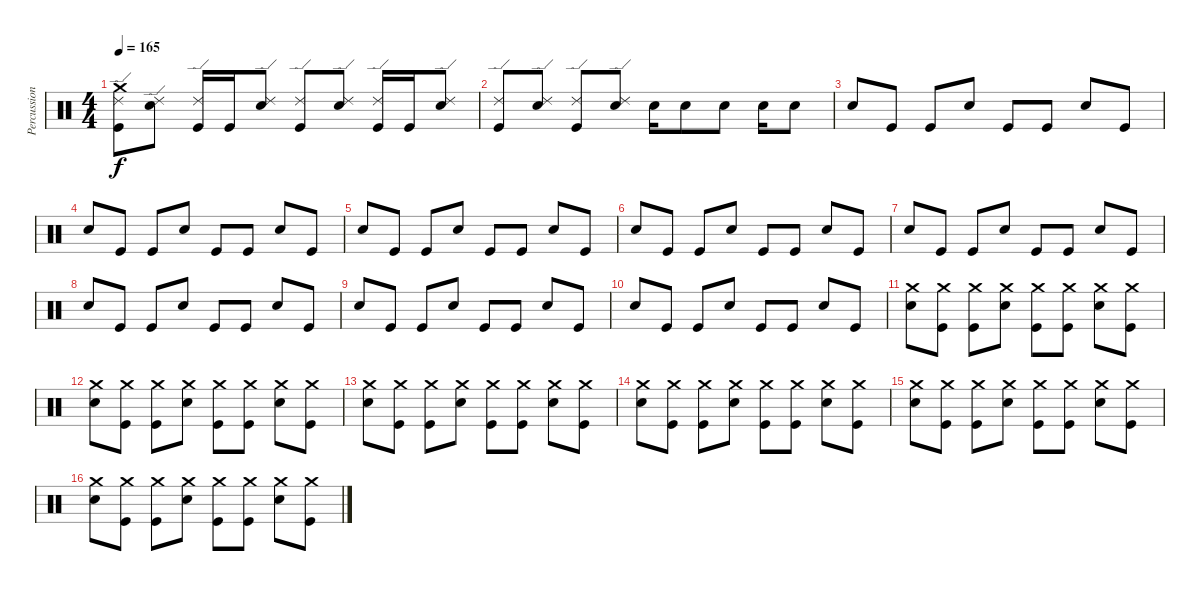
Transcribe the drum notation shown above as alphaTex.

\track ("Percussion" "Percussion") {instrument percussion}
\staff {score}
\articulation defaults
\ts (4 4)
\tempo 165
\clef neutral
\ks c
("Crash medium (hit)" "Ride (edge) 2" "Kick (hit)").8{dy f} ("Ride (edge) 2" "Electric Snare (hit)").8 ("Ride (edge) 2" "Kick (hit)").16 "Kick (hit)".16 ("Ride (edge) 2" "Electric Snare (hit)").8 ("Ride (edge) 2" "Kick (hit)").8 ("Ride (edge) 2" "Electric Snare (hit)").8 ("Ride (edge) 2" "Kick (hit)").16 "Kick (hit)".16 ("Ride (edge) 2" "Electric Snare (hit)").8 |
("Ride (edge) 2" "Kick (hit)").8 ("Ride (edge) 2" "Electric Snare (hit)").8 ("Ride (edge) 2" "Kick (hit)").8 ("Ride (edge) 2" "Electric Snare (hit)").8 "Electric Snare (hit)".16 "Electric Snare (hit)".8 "Electric Snare (hit)".8 "Electric Snare (hit)".16 "Electric Snare (hit)".8 |
"Electric Snare (hit)".8 "Kick (hit)".8 "Kick (hit)".8 "Electric Snare (hit)".8 "Kick (hit)".8 "Kick (hit)".8 "Electric Snare (hit)".8 "Kick (hit)".8 |
"Electric Snare (hit)".8 "Kick (hit)".8 "Kick (hit)".8 "Electric Snare (hit)".8 "Kick (hit)".8 "Kick (hit)".8 "Electric Snare (hit)".8 "Kick (hit)".8 |
"Electric Snare (hit)".8 "Kick (hit)".8 "Kick (hit)".8 "Electric Snare (hit)".8 "Kick (hit)".8 "Kick (hit)".8 "Electric Snare (hit)".8 "Kick (hit)".8 |
"Electric Snare (hit)".8 "Kick (hit)".8 "Kick (hit)".8 "Electric Snare (hit)".8 "Kick (hit)".8 "Kick (hit)".8 "Electric Snare (hit)".8 "Kick (hit)".8 |
"Electric Snare (hit)".8 "Kick (hit)".8 "Kick (hit)".8 "Electric Snare (hit)".8 "Kick (hit)".8 "Kick (hit)".8 "Electric Snare (hit)".8 "Kick (hit)".8 |
"Electric Snare (hit)".8 "Kick (hit)".8 "Kick (hit)".8 "Electric Snare (hit)".8 "Kick (hit)".8 "Kick (hit)".8 "Electric Snare (hit)".8 "Kick (hit)".8 |
"Electric Snare (hit)".8 "Kick (hit)".8 "Kick (hit)".8 "Electric Snare (hit)".8 "Kick (hit)".8 "Kick (hit)".8 "Electric Snare (hit)".8 "Kick (hit)".8 |
"Electric Snare (hit)".8 "Kick (hit)".8 "Kick (hit)".8 "Electric Snare (hit)".8 "Kick (hit)".8 "Kick (hit)".8 "Electric Snare (hit)".8 "Kick (hit)".8 |
("Crash medium (hit)" "Electric Snare (hit)").8 ("Crash medium (hit)" "Kick (hit)").8 ("Crash medium (hit)" "Kick (hit)").8 ("Crash medium (hit)" "Electric Snare (hit)").8 ("Crash medium (hit)" "Kick (hit)").8 ("Crash medium (hit)" "Kick (hit)").8 ("Crash medium (hit)" "Electric Snare (hit)").8 ("Crash medium (hit)" "Kick (hit)").8 |
("Crash medium (hit)" "Electric Snare (hit)").8 ("Crash medium (hit)" "Kick (hit)").8 ("Crash medium (hit)" "Kick (hit)").8 ("Crash medium (hit)" "Electric Snare (hit)").8 ("Crash medium (hit)" "Kick (hit)").8 ("Crash medium (hit)" "Kick (hit)").8 ("Crash medium (hit)" "Electric Snare (hit)").8 ("Crash medium (hit)" "Kick (hit)").8 |
("Crash medium (hit)" "Electric Snare (hit)").8 ("Crash medium (hit)" "Kick (hit)").8 ("Crash medium (hit)" "Kick (hit)").8 ("Crash medium (hit)" "Electric Snare (hit)").8 ("Crash medium (hit)" "Kick (hit)").8 ("Crash medium (hit)" "Kick (hit)").8 ("Crash medium (hit)" "Electric Snare (hit)").8 ("Crash medium (hit)" "Kick (hit)").8 |
("Crash medium (hit)" "Electric Snare (hit)").8 ("Crash medium (hit)" "Kick (hit)").8 ("Crash medium (hit)" "Kick (hit)").8 ("Crash medium (hit)" "Electric Snare (hit)").8 ("Crash medium (hit)" "Kick (hit)").8 ("Crash medium (hit)" "Kick (hit)").8 ("Crash medium (hit)" "Electric Snare (hit)").8 ("Crash medium (hit)" "Kick (hit)").8 |
("Crash medium (hit)" "Electric Snare (hit)").8 ("Crash medium (hit)" "Kick (hit)").8 ("Crash medium (hit)" "Kick (hit)").8 ("Crash medium (hit)" "Electric Snare (hit)").8 ("Crash medium (hit)" "Kick (hit)").8 ("Crash medium (hit)" "Kick (hit)").8 ("Crash medium (hit)" "Electric Snare (hit)").8 ("Crash medium (hit)" "Kick (hit)").8 |
("Crash medium (hit)" "Electric Snare (hit)").8 ("Crash medium (hit)" "Kick (hit)").8 ("Crash medium (hit)" "Kick (hit)").8 ("Crash medium (hit)" "Electric Snare (hit)").8 ("Crash medium (hit)" "Kick (hit)").8 ("Crash medium (hit)" "Kick (hit)").8 ("Crash medium (hit)" "Electric Snare (hit)").8 ("Crash medium (hit)" "Kick (hit)").8
